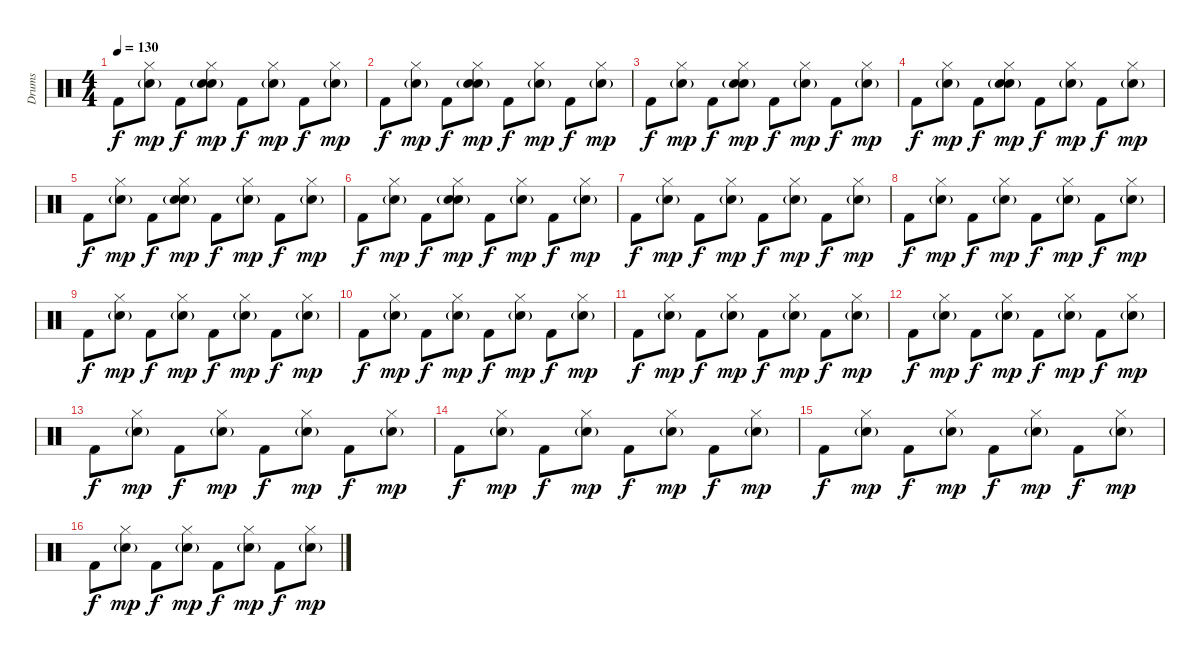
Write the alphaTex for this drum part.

\track ("Drums" "Drums") {instrument percussion}
\staff {score}
\articulation defaults
\ts (4 4)
\tempo 130
\clef neutral
\ks c "Kick (hit) 2".8{dy f}
("Hi-Hat (closed)" "Hand Clap (hit)"{g}).8{dy mp} "Kick (hit) 2".8{dy f} ("Hi-Hat (closed)" "Hand Clap (hit)"{g} "Electric Snare (hit)").8{dy mp} "Kick (hit) 2".8{dy f} ("Hi-Hat (closed)" "Hand Clap (hit)"{g}).8{dy mp} "Kick (hit) 2".8{dy f} ("Hi-Hat (closed)" "Hand Clap (hit)"{g}).8{dy mp} |
"Kick (hit) 2".8{dy f} ("Hi-Hat (closed)" "Hand Clap (hit)"{g}).8{dy mp} "Kick (hit) 2".8{dy f} ("Hi-Hat (closed)" "Hand Clap (hit)"{g} "Electric Snare (hit)").8{dy mp} "Kick (hit) 2".8{dy f} ("Hi-Hat (closed)" "Hand Clap (hit)"{g}).8{dy mp} "Kick (hit) 2".8{dy f} ("Hi-Hat (closed)" "Hand Clap (hit)"{g}).8{dy mp} |
"Kick (hit) 2".8{dy f} ("Hi-Hat (closed)" "Hand Clap (hit)"{g}).8{dy mp} "Kick (hit) 2".8{dy f} ("Hi-Hat (closed)" "Hand Clap (hit)"{g} "Electric Snare (hit)").8{dy mp} "Kick (hit) 2".8{dy f} ("Hi-Hat (closed)" "Hand Clap (hit)"{g}).8{dy mp} "Kick (hit) 2".8{dy f} ("Hi-Hat (closed)" "Hand Clap (hit)"{g}).8{dy mp} |
"Kick (hit) 2".8{dy f} ("Hi-Hat (closed)" "Hand Clap (hit)"{g}).8{dy mp} "Kick (hit) 2".8{dy f} ("Hi-Hat (closed)" "Hand Clap (hit)"{g} "Electric Snare (hit)").8{dy mp} "Kick (hit) 2".8{dy f} ("Hi-Hat (closed)" "Hand Clap (hit)"{g}).8{dy mp} "Kick (hit) 2".8{dy f} ("Hi-Hat (closed)" "Hand Clap (hit)"{g}).8{dy mp} |
"Kick (hit) 2".8{dy f} ("Hi-Hat (closed)" "Hand Clap (hit)"{g}).8{dy mp} "Kick (hit) 2".8{dy f} ("Hi-Hat (closed)" "Hand Clap (hit)"{g} "Electric Snare (hit)").8{dy mp} "Kick (hit) 2".8{dy f} ("Hi-Hat (closed)" "Hand Clap (hit)"{g}).8{dy mp} "Kick (hit) 2".8{dy f} ("Hi-Hat (closed)" "Hand Clap (hit)"{g}).8{dy mp} |
"Kick (hit) 2".8{dy f} ("Hi-Hat (closed)" "Hand Clap (hit)"{g}).8{dy mp} "Kick (hit) 2".8{dy f} ("Hi-Hat (closed)" "Hand Clap (hit)"{g} "Electric Snare (hit)").8{dy mp} "Kick (hit) 2".8{dy f} ("Hi-Hat (closed)" "Hand Clap (hit)"{g}).8{dy mp} "Kick (hit) 2".8{dy f} ("Hi-Hat (closed)" "Hand Clap (hit)"{g}).8{dy mp} |
"Kick (hit) 2".8{dy f} ("Hi-Hat (closed)" "Hand Clap (hit)"{g}).8{dy mp} "Kick (hit) 2".8{dy f} ("Hi-Hat (closed)" "Hand Clap (hit)"{g}).8{dy mp} "Kick (hit) 2".8{dy f} ("Hi-Hat (closed)" "Hand Clap (hit)"{g}).8{dy mp} "Kick (hit) 2".8{dy f} ("Hi-Hat (closed)" "Hand Clap (hit)"{g}).8{dy mp} |
"Kick (hit) 2".8{dy f} ("Hi-Hat (closed)" "Hand Clap (hit)"{g}).8{dy mp} "Kick (hit) 2".8{dy f} ("Hi-Hat (closed)" "Hand Clap (hit)"{g}).8{dy mp} "Kick (hit) 2".8{dy f} ("Hi-Hat (closed)" "Hand Clap (hit)"{g}).8{dy mp} "Kick (hit) 2".8{dy f} ("Hi-Hat (closed)" "Hand Clap (hit)"{g}).8{dy mp} |
"Kick (hit) 2".8{dy f} ("Hi-Hat (closed)" "Hand Clap (hit)"{g}).8{dy mp} "Kick (hit) 2".8{dy f} ("Hi-Hat (closed)" "Hand Clap (hit)"{g}).8{dy mp} "Kick (hit) 2".8{dy f} ("Hi-Hat (closed)" "Hand Clap (hit)"{g}).8{dy mp} "Kick (hit) 2".8{dy f} ("Hi-Hat (closed)" "Hand Clap (hit)"{g}).8{dy mp} |
"Kick (hit) 2".8{dy f} ("Hi-Hat (closed)" "Hand Clap (hit)"{g}).8{dy mp} "Kick (hit) 2".8{dy f} ("Hi-Hat (closed)" "Hand Clap (hit)"{g}).8{dy mp} "Kick (hit) 2".8{dy f} ("Hi-Hat (closed)" "Hand Clap (hit)"{g}).8{dy mp} "Kick (hit) 2".8{dy f} ("Hi-Hat (closed)" "Hand Clap (hit)"{g}).8{dy mp} |
"Kick (hit) 2".8{dy f} ("Hi-Hat (closed)" "Hand Clap (hit)"{g}).8{dy mp} "Kick (hit) 2".8{dy f} ("Hi-Hat (closed)" "Hand Clap (hit)"{g}).8{dy mp} "Kick (hit) 2".8{dy f} ("Hi-Hat (closed)" "Hand Clap (hit)"{g}).8{dy mp} "Kick (hit) 2".8{dy f} ("Hi-Hat (closed)" "Hand Clap (hit)"{g}).8{dy mp} |
"Kick (hit) 2".8{dy f} ("Hi-Hat (closed)" "Hand Clap (hit)"{g}).8{dy mp} "Kick (hit) 2".8{dy f} ("Hi-Hat (closed)" "Hand Clap (hit)"{g}).8{dy mp} "Kick (hit) 2".8{dy f} ("Hi-Hat (closed)" "Hand Clap (hit)"{g}).8{dy mp} "Kick (hit) 2".8{dy f} ("Hi-Hat (closed)" "Hand Clap (hit)"{g}).8{dy mp} |
"Kick (hit) 2".8{dy f} ("Hi-Hat (closed)" "Hand Clap (hit)"{g}).8{dy mp} "Kick (hit) 2".8{dy f} ("Hi-Hat (closed)" "Hand Clap (hit)"{g}).8{dy mp} "Kick (hit) 2".8{dy f} ("Hi-Hat (closed)" "Hand Clap (hit)"{g}).8{dy mp} "Kick (hit) 2".8{dy f} ("Hi-Hat (closed)" "Hand Clap (hit)"{g}).8{dy mp} |
"Kick (hit) 2".8{dy f} ("Hi-Hat (closed)" "Hand Clap (hit)"{g}).8{dy mp} "Kick (hit) 2".8{dy f} ("Hi-Hat (closed)" "Hand Clap (hit)"{g}).8{dy mp} "Kick (hit) 2".8{dy f} ("Hi-Hat (closed)" "Hand Clap (hit)"{g}).8{dy mp} "Kick (hit) 2".8{dy f} ("Hi-Hat (closed)" "Hand Clap (hit)"{g}).8{dy mp} |
"Kick (hit) 2".8{dy f} ("Hi-Hat (closed)" "Hand Clap (hit)"{g}).8{dy mp} "Kick (hit) 2".8{dy f} ("Hi-Hat (closed)" "Hand Clap (hit)"{g}).8{dy mp} "Kick (hit) 2".8{dy f} ("Hi-Hat (closed)" "Hand Clap (hit)"{g}).8{dy mp} "Kick (hit) 2".8{dy f} ("Hi-Hat (closed)" "Hand Clap (hit)"{g}).8{dy mp} |
"Kick (hit) 2".8{dy f} ("Hi-Hat (closed)" "Hand Clap (hit)"{g}).8{dy mp} "Kick (hit) 2".8{dy f} ("Hi-Hat (closed)" "Hand Clap (hit)"{g}).8{dy mp} "Kick (hit) 2".8{dy f} ("Hi-Hat (closed)" "Hand Clap (hit)"{g}).8{dy mp} "Kick (hit) 2".8{dy f} ("Hi-Hat (closed)" "Hand Clap (hit)"{g}).8{dy mp}
